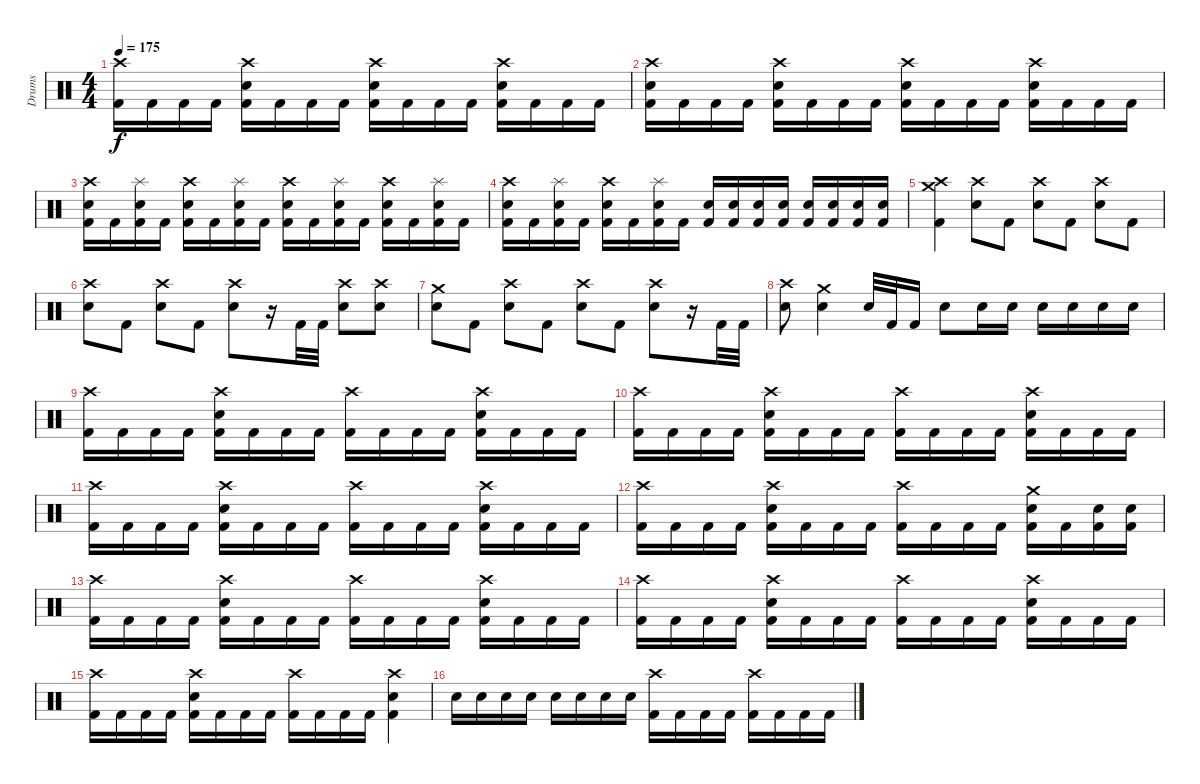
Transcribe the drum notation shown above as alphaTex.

\track ("Drums" "Drums") {instrument percussion}
\staff {score}
\articulation defaults
\ts (4 4)
\tempo 175
\clef neutral
\ks c
("Crash high (hit)" "Kick (hit) 2").16{dy f} "Kick (hit) 2".16 "Kick (hit) 2".16 "Kick (hit) 2".16 ("Crash high (hit)" "Snare (hit) 2" "Kick (hit) 2").16 "Kick (hit) 2".16 "Kick (hit) 2".16 "Kick (hit) 2".16 ("Crash high (hit)" "Snare (hit) 2" "Kick (hit) 2").16 "Kick (hit) 2".16 "Kick (hit) 2".16 "Kick (hit) 2".16 ("Crash high (hit)" "Snare (hit) 2" "Kick (hit) 2").16 "Kick (hit) 2".16 "Kick (hit) 2".16 "Kick (hit) 2".16 |
("Crash high (hit)" "Snare (hit) 2" "Kick (hit) 2").16 "Kick (hit) 2".16 "Kick (hit) 2".16 "Kick (hit) 2".16 ("Crash high (hit)" "Snare (hit) 2" "Kick (hit) 2").16 "Kick (hit) 2".16 "Kick (hit) 2".16 "Kick (hit) 2".16 ("Crash high (hit)" "Snare (hit) 2" "Kick (hit) 2").16 "Kick (hit) 2".16 "Kick (hit) 2".16 "Kick (hit) 2".16 ("Crash high (hit)" "Snare (hit) 2" "Kick (hit) 2").16 "Kick (hit) 2".16 "Kick (hit) 2".16 "Kick (hit) 2".16 |
("Crash high (hit)" "Snare (hit) 2" "Kick (hit) 2").16 "Kick (hit) 2".16 ("Splash (hit)" "Snare (hit) 2" "Kick (hit) 2").16 "Kick (hit) 2".16 ("Crash high (hit)" "Snare (hit) 2" "Kick (hit) 2").16 "Kick (hit) 2".16 ("Splash (hit)" "Snare (hit) 2" "Kick (hit) 2").16 "Kick (hit) 2".16 ("Crash high (hit)" "Snare (hit) 2" "Kick (hit) 2").16 "Kick (hit) 2".16 ("Splash (hit)" "Snare (hit) 2" "Kick (hit) 2").16 "Kick (hit) 2".16 ("Crash high (hit)" "Snare (hit) 2" "Kick (hit) 2").16 "Kick (hit) 2".16 ("Splash (hit)" "Snare (hit) 2" "Kick (hit) 2").16 "Kick (hit) 2".16 |
("Crash high (hit)" "Snare (hit) 2" "Kick (hit) 2").16 "Kick (hit) 2".16 ("Splash (hit)" "Snare (hit) 2" "Kick (hit) 2").16 "Kick (hit) 2".16 ("Crash high (hit)" "Snare (hit) 2" "Kick (hit) 2").16 "Kick (hit) 2".16 ("Splash (hit)" "Snare (hit) 2" "Kick (hit) 2").16 "Kick (hit) 2".16 ("Snare (hit) 2" "Kick (hit) 2").16 ("Snare (hit) 2" "Kick (hit) 2").16 ("Snare (hit) 2" "Kick (hit) 2").16 ("Snare (hit) 2" "Kick (hit) 2").16 ("Snare (hit) 2" "Kick (hit) 2").16 ("Snare (hit) 2" "Kick (hit) 2").16 ("Snare (hit) 2" "Kick (hit) 2").16 ("Snare (hit) 2" "Kick (hit) 2").16 |
("Crash medium (hit)" "Crash high (hit)" "Kick (hit) 2").4 ("Crash high (hit)" "Snare (hit) 2").8 "Kick (hit) 2".8 ("Crash high (hit)" "Snare (hit) 2").8 "Kick (hit) 2".8 ("Crash high (hit)" "Snare (hit) 2").8 "Kick (hit) 2".8 |
("Crash high (hit)" "Snare (hit) 2").8 "Kick (hit) 2".8 ("Crash high (hit)" "Snare (hit) 2").8 "Kick (hit) 2".8 ("Crash high (hit)" "Snare (hit) 2").8 r.16 "Kick (hit) 2".32 "Kick (hit) 2".32 ("Crash high (hit)" "Snare (hit) 2").8 ("Crash high (hit)" "Snare (hit) 2").8 |
("Crash medium (hit)" "Snare (hit) 2").8 "Kick (hit) 2".8 ("Crash high (hit)" "Snare (hit) 2").8 "Kick (hit) 2".8 ("Crash high (hit)" "Snare (hit) 2").8 "Kick (hit) 2".8 ("Crash high (hit)" "Snare (hit) 2").8 r.16 "Kick (hit) 2".32 "Kick (hit) 2".32 |
("Crash high (hit)" "Snare (hit) 2").8 ("Crash medium (hit)" "Snare (hit) 2").4 "Snare (hit) 2".32 "Kick (hit) 2".32 "Kick (hit) 2".16 "Snare (hit) 2".8 "Snare (hit) 2".16 "Snare (hit) 2".16 "Snare (hit) 2".16 "Snare (hit) 2".16 "Snare (hit) 2".16 "Snare (hit) 2".16 |
("Crash high (hit)" "Kick (hit) 2").16 "Kick (hit) 2".16 "Kick (hit) 2".16 "Kick (hit) 2".16 ("Crash high (hit)" "Snare (hit) 2" "Kick (hit) 2").16 "Kick (hit) 2".16 "Kick (hit) 2".16 "Kick (hit) 2".16 ("Crash high (hit)" "Kick (hit) 2").16 "Kick (hit) 2".16 "Kick (hit) 2".16 "Kick (hit) 2".16 ("Crash high (hit)" "Snare (hit) 2" "Kick (hit) 2").16 "Kick (hit) 2".16 "Kick (hit) 2".16 "Kick (hit) 2".16 |
("Crash high (hit)" "Kick (hit) 2").16 "Kick (hit) 2".16 "Kick (hit) 2".16 "Kick (hit) 2".16 ("Crash high (hit)" "Snare (hit) 2" "Kick (hit) 2").16 "Kick (hit) 2".16 "Kick (hit) 2".16 "Kick (hit) 2".16 ("Crash high (hit)" "Kick (hit) 2").16 "Kick (hit) 2".16 "Kick (hit) 2".16 "Kick (hit) 2".16 ("Crash high (hit)" "Snare (hit) 2" "Kick (hit) 2").16 "Kick (hit) 2".16 "Kick (hit) 2".16 "Kick (hit) 2".16 |
("Crash high (hit)" "Kick (hit) 2").16 "Kick (hit) 2".16 "Kick (hit) 2".16 "Kick (hit) 2".16 ("Crash high (hit)" "Snare (hit) 2" "Kick (hit) 2").16 "Kick (hit) 2".16 "Kick (hit) 2".16 "Kick (hit) 2".16 ("Crash high (hit)" "Kick (hit) 2").16 "Kick (hit) 2".16 "Kick (hit) 2".16 "Kick (hit) 2".16 ("Crash high (hit)" "Snare (hit) 2" "Kick (hit) 2").16 "Kick (hit) 2".16 "Kick (hit) 2".16 "Kick (hit) 2".16 |
("Crash high (hit)" "Kick (hit) 2").16 "Kick (hit) 2".16 "Kick (hit) 2".16 "Kick (hit) 2".16 ("Crash high (hit)" "Snare (hit) 2" "Kick (hit) 2").16 "Kick (hit) 2".16 "Kick (hit) 2".16 "Kick (hit) 2".16 ("Crash high (hit)" "Kick (hit) 2").16 "Kick (hit) 2".16 "Kick (hit) 2".16 "Kick (hit) 2".16 ("Crash medium (hit)" "Snare (hit) 2" "Kick (hit) 2").16 "Kick (hit) 2".16 ("Snare (hit) 2" "Kick (hit) 2").16 ("Snare (hit) 2" "Kick (hit) 2").16 |
("Crash high (hit)" "Kick (hit) 2").16 "Kick (hit) 2".16 "Kick (hit) 2".16 "Kick (hit) 2".16 ("Crash high (hit)" "Snare (hit) 2" "Kick (hit) 2").16 "Kick (hit) 2".16 "Kick (hit) 2".16 "Kick (hit) 2".16 ("Crash high (hit)" "Kick (hit) 2").16 "Kick (hit) 2".16 "Kick (hit) 2".16 "Kick (hit) 2".16 ("Crash high (hit)" "Snare (hit) 2" "Kick (hit) 2").16 "Kick (hit) 2".16 "Kick (hit) 2".16 "Kick (hit) 2".16 |
("Crash high (hit)" "Kick (hit) 2").16 "Kick (hit) 2".16 "Kick (hit) 2".16 "Kick (hit) 2".16 ("Crash high (hit)" "Snare (hit) 2" "Kick (hit) 2").16 "Kick (hit) 2".16 "Kick (hit) 2".16 "Kick (hit) 2".16 ("Crash high (hit)" "Kick (hit) 2").16 "Kick (hit) 2".16 "Kick (hit) 2".16 "Kick (hit) 2".16 ("Crash high (hit)" "Snare (hit) 2" "Kick (hit) 2").16 "Kick (hit) 2".16 "Kick (hit) 2".16 "Kick (hit) 2".16 |
("Crash high (hit)" "Kick (hit) 2").16 "Kick (hit) 2".16 "Kick (hit) 2".16 "Kick (hit) 2".16 ("Crash high (hit)" "Snare (hit) 2" "Kick (hit) 2").16 "Kick (hit) 2".16 "Kick (hit) 2".16 "Kick (hit) 2".16 ("Crash high (hit)" "Kick (hit) 2").16 "Kick (hit) 2".16 "Kick (hit) 2".16 "Kick (hit) 2".16 ("Crash high (hit)" "Snare (hit) 2" "Kick (hit) 2").4 |
"Snare (hit) 2".16 "Snare (hit) 2".16 "Snare (hit) 2".16 "Snare (hit) 2".16 "Snare (hit) 2".16 "Snare (hit) 2".16 "Snare (hit) 2".16 "Snare (hit) 2".16 ("Crash high (hit)" "Kick (hit) 2").16 "Kick (hit) 2".16 "Kick (hit) 2".16 "Kick (hit) 2".16 ("Crash high (hit)" "Kick (hit) 2").16 "Kick (hit) 2".16 "Kick (hit) 2".16 "Kick (hit) 2".16
